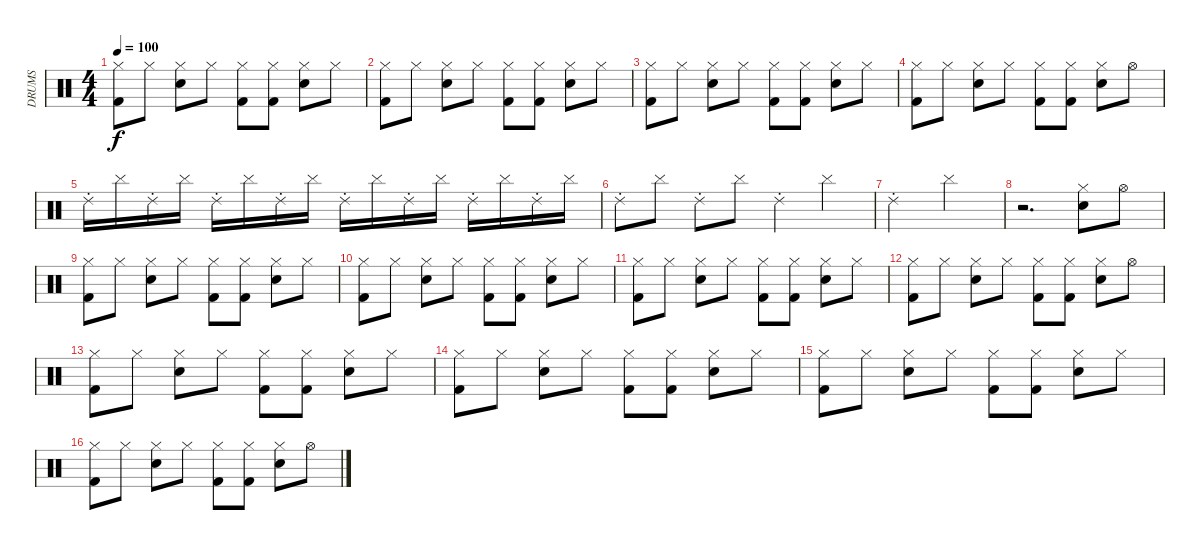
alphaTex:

\track ("DRUMS" "DRUMS") {instrument percussion}
\staff {score}
\articulation defaults
\ts (4 4)
\tempo 100
\clef neutral
\ks c
("Hi-Hat (closed)" "Kick (hit) 2").8{dy f} "Hi-Hat (closed)".8 ("Hi-Hat (closed)" "Snare (hit) 2").8 "Hi-Hat (closed)".8 ("Hi-Hat (closed)" "Kick (hit) 2").8 ("Hi-Hat (closed)" "Kick (hit) 2").8 ("Hi-Hat (closed)" "Snare (hit) 2").8 "Hi-Hat (closed)".8 |
("Hi-Hat (closed)" "Kick (hit) 2").8 "Hi-Hat (closed)".8 ("Hi-Hat (closed)" "Snare (hit) 2").8 "Hi-Hat (closed)".8 ("Hi-Hat (closed)" "Kick (hit) 2").8 ("Hi-Hat (closed)" "Kick (hit) 2").8 ("Hi-Hat (closed)" "Snare (hit) 2").8 "Hi-Hat (closed)".8 |
("Hi-Hat (closed)" "Kick (hit) 2").8 "Hi-Hat (closed)".8 ("Hi-Hat (closed)" "Snare (hit) 2").8 "Hi-Hat (closed)".8 ("Hi-Hat (closed)" "Kick (hit) 2").8 ("Hi-Hat (closed)" "Kick (hit) 2").8 ("Hi-Hat (closed)" "Snare (hit) 2").8 "Hi-Hat (closed)".8 |
("Hi-Hat (closed)" "Kick (hit) 2").8 "Hi-Hat (closed)".8 ("Hi-Hat (closed)" "Snare (hit) 2").8 "Hi-Hat (closed)".8 ("Hi-Hat (closed)" "Kick (hit) 2").8 ("Hi-Hat (closed)" "Kick (hit) 2").8 ("Hi-Hat (closed)" "Snare (hit) 2").8 "Hi-Hat (open)".8 |
"Ride (choke) 2".16 "Cymbal (hit)".16 "Ride (choke) 2".16 "Cymbal (hit)".16 "Ride (choke) 2".16 "Cymbal (hit)".16 "Ride (choke) 2".16 "Cymbal (hit)".16 "Ride (choke) 2".16 "Cymbal (hit)".16 "Ride (choke) 2".16 "Cymbal (hit)".16 "Ride (choke) 2".16 "Cymbal (hit)".16 "Ride (choke) 2".16 "Cymbal (hit)".16 |
"Ride (choke) 2".8 "Cymbal (hit)".8 "Ride (choke) 2".8 "Cymbal (hit)".8 "Ride (choke) 2".4 "Cymbal (hit)".4 |
"Ride (choke) 2".2 "Cymbal (hit)".2 |
r.2{d} ("Hi-Hat (closed)" "Snare (hit) 2").8 "Hi-Hat (open)".8 |
("Hi-Hat (closed)" "Kick (hit) 2").8 "Hi-Hat (closed)".8 ("Hi-Hat (closed)" "Snare (hit) 2").8 "Hi-Hat (closed)".8 ("Hi-Hat (closed)" "Kick (hit) 2").8 ("Hi-Hat (closed)" "Kick (hit) 2").8 ("Hi-Hat (closed)" "Snare (hit) 2").8 "Hi-Hat (closed)".8 |
("Hi-Hat (closed)" "Kick (hit) 2").8 "Hi-Hat (closed)".8 ("Hi-Hat (closed)" "Snare (hit) 2").8 "Hi-Hat (closed)".8 ("Hi-Hat (closed)" "Kick (hit) 2").8 ("Hi-Hat (closed)" "Kick (hit) 2").8 ("Hi-Hat (closed)" "Snare (hit) 2").8 "Hi-Hat (closed)".8 |
("Hi-Hat (closed)" "Kick (hit) 2").8 "Hi-Hat (closed)".8 ("Hi-Hat (closed)" "Snare (hit) 2").8 "Hi-Hat (closed)".8 ("Hi-Hat (closed)" "Kick (hit) 2").8 ("Hi-Hat (closed)" "Kick (hit) 2").8 ("Hi-Hat (closed)" "Snare (hit) 2").8 "Hi-Hat (closed)".8 |
("Hi-Hat (closed)" "Kick (hit) 2").8 "Hi-Hat (closed)".8 ("Hi-Hat (closed)" "Snare (hit) 2").8 "Hi-Hat (closed)".8 ("Hi-Hat (closed)" "Kick (hit) 2").8 ("Hi-Hat (closed)" "Kick (hit) 2").8 ("Hi-Hat (closed)" "Snare (hit) 2").8 "Hi-Hat (open)".8 |
("Hi-Hat (closed)" "Kick (hit) 2").8 "Hi-Hat (closed)".8 ("Hi-Hat (closed)" "Snare (hit) 2").8 "Hi-Hat (closed)".8 ("Hi-Hat (closed)" "Kick (hit) 2").8 ("Hi-Hat (closed)" "Kick (hit) 2").8 ("Hi-Hat (closed)" "Snare (hit) 2").8 "Hi-Hat (closed)".8 |
("Hi-Hat (closed)" "Kick (hit) 2").8 "Hi-Hat (closed)".8 ("Hi-Hat (closed)" "Snare (hit) 2").8 "Hi-Hat (closed)".8 ("Hi-Hat (closed)" "Kick (hit) 2").8 ("Hi-Hat (closed)" "Kick (hit) 2").8 ("Hi-Hat (closed)" "Snare (hit) 2").8 "Hi-Hat (closed)".8 |
("Hi-Hat (closed)" "Kick (hit) 2").8 "Hi-Hat (closed)".8 ("Hi-Hat (closed)" "Snare (hit) 2").8 "Hi-Hat (closed)".8 ("Hi-Hat (closed)" "Kick (hit) 2").8 ("Hi-Hat (closed)" "Kick (hit) 2").8 ("Hi-Hat (closed)" "Snare (hit) 2").8 "Hi-Hat (closed)".8 |
("Hi-Hat (closed)" "Kick (hit) 2").8 "Hi-Hat (closed)".8 ("Hi-Hat (closed)" "Snare (hit) 2").8 "Hi-Hat (closed)".8 ("Hi-Hat (closed)" "Kick (hit) 2").8 ("Hi-Hat (closed)" "Kick (hit) 2").8 ("Hi-Hat (closed)" "Snare (hit) 2").8 "Hi-Hat (open)".8
